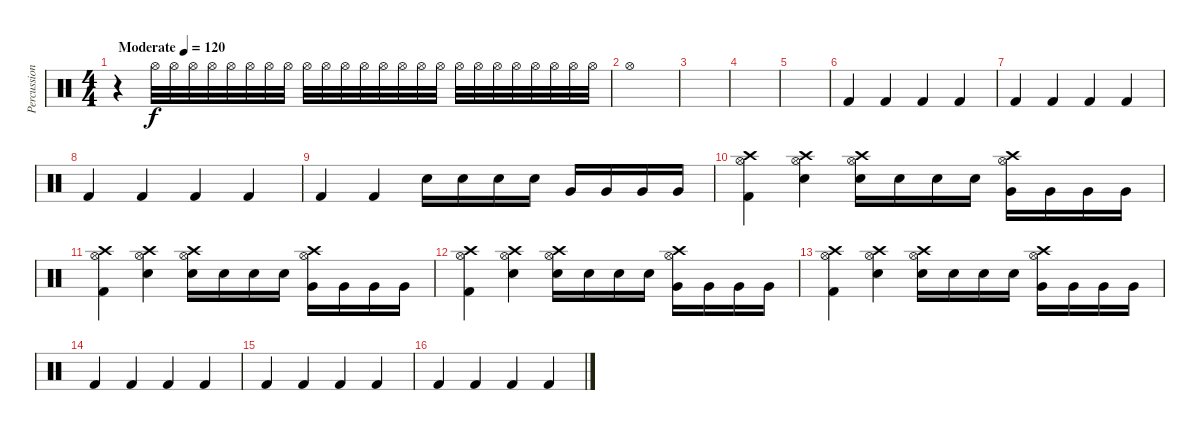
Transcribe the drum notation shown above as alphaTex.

\track ("Percussion" "Percussion") {instrument percussion}
\staff {score}
\articulation defaults
\ts (4 4)
\tempo (120 "Moderate")
\clef neutral
\ks c
r.4{dy f volume 0} "Hi-Hat (open)".32{volume 13} "Hi-Hat (open)".32 "Hi-Hat (open)".32 "Hi-Hat (open)".32 "Hi-Hat (open)".32 "Hi-Hat (open)".32 "Hi-Hat (open)".32 "Hi-Hat (open)".32 "Hi-Hat (open)".32 "Hi-Hat (open)".32 "Hi-Hat (open)".32 "Hi-Hat (open)".32 "Hi-Hat (open)".32 "Hi-Hat (open)".32 "Hi-Hat (open)".32 "Hi-Hat (open)".32 "Hi-Hat (open)".32 "Hi-Hat (open)".32 "Hi-Hat (open)".32 "Hi-Hat (open)".32 "Hi-Hat (open)".32 "Hi-Hat (open)".32 "Hi-Hat (open)".32 "Hi-Hat (open)".32 |
"Hi-Hat (open)".1 |
|
|
|
"Kick (hit) 2".4 "Kick (hit) 2".4 "Kick (hit) 2".4 "Kick (hit) 2".4 |
"Kick (hit) 2".4 "Kick (hit) 2".4 "Kick (hit) 2".4 "Kick (hit) 2".4 |
"Kick (hit) 2".4 "Kick (hit) 2".4 "Kick (hit) 2".4 "Kick (hit) 2".4 |
"Kick (hit) 2".4 "Kick (hit) 2".4 "Snare (hit) 2".16 "Snare (hit) 2".16 "Snare (hit) 2".16 "Snare (hit) 2".16 "Very Low Tom (hit)".16 "Very Low Tom (hit)".16 "Very Low Tom (hit)".16 "Very Low Tom (hit)".16 |
("Crash high (hit)" "Hi-Hat (open)" "Kick (hit) 2").4 ("Crash high (hit)" "Hi-Hat (open)" "Snare (hit) 2").4 ("Hi-Hat (open)" "Crash high (hit)" "Snare (hit) 2").16 "Snare (hit) 2".16 "Snare (hit) 2".16 "Snare (hit) 2".16 ("Hi-Hat (open)" "Crash high (hit)" "Very Low Tom (hit)").16 "Very Low Tom (hit)".16 "Very Low Tom (hit)".16 "Very Low Tom (hit)".16 |
("Crash high (hit)" "Hi-Hat (open)" "Kick (hit) 2").4 ("Crash high (hit)" "Hi-Hat (open)" "Snare (hit) 2").4 ("Hi-Hat (open)" "Crash high (hit)" "Snare (hit) 2").16 "Snare (hit) 2".16 "Snare (hit) 2".16 "Snare (hit) 2".16 ("Hi-Hat (open)" "Crash high (hit)" "Very Low Tom (hit)").16 "Very Low Tom (hit)".16 "Very Low Tom (hit)".16 "Very Low Tom (hit)".16 |
("Crash high (hit)" "Hi-Hat (open)" "Kick (hit) 2").4 ("Crash high (hit)" "Hi-Hat (open)" "Snare (hit) 2").4 ("Hi-Hat (open)" "Crash high (hit)" "Snare (hit) 2").16 "Snare (hit) 2".16 "Snare (hit) 2".16 "Snare (hit) 2".16 ("Hi-Hat (open)" "Crash high (hit)" "Very Low Tom (hit)").16 "Very Low Tom (hit)".16 "Very Low Tom (hit)".16 "Very Low Tom (hit)".16 |
("Crash high (hit)" "Hi-Hat (open)" "Kick (hit) 2").4 ("Crash high (hit)" "Hi-Hat (open)" "Snare (hit) 2").4 ("Hi-Hat (open)" "Crash high (hit)" "Snare (hit) 2").16 "Snare (hit) 2".16 "Snare (hit) 2".16 "Snare (hit) 2".16 ("Hi-Hat (open)" "Crash high (hit)" "Very Low Tom (hit)").16 "Very Low Tom (hit)".16 "Very Low Tom (hit)".16 "Very Low Tom (hit)".16 |
"Kick (hit) 2".4 "Kick (hit) 2".4 "Kick (hit) 2".4 "Kick (hit) 2".4 |
"Kick (hit) 2".4 "Kick (hit) 2".4 "Kick (hit) 2".4 "Kick (hit) 2".4 |
"Kick (hit) 2".4 "Kick (hit) 2".4 "Kick (hit) 2".4 "Kick (hit) 2".4
